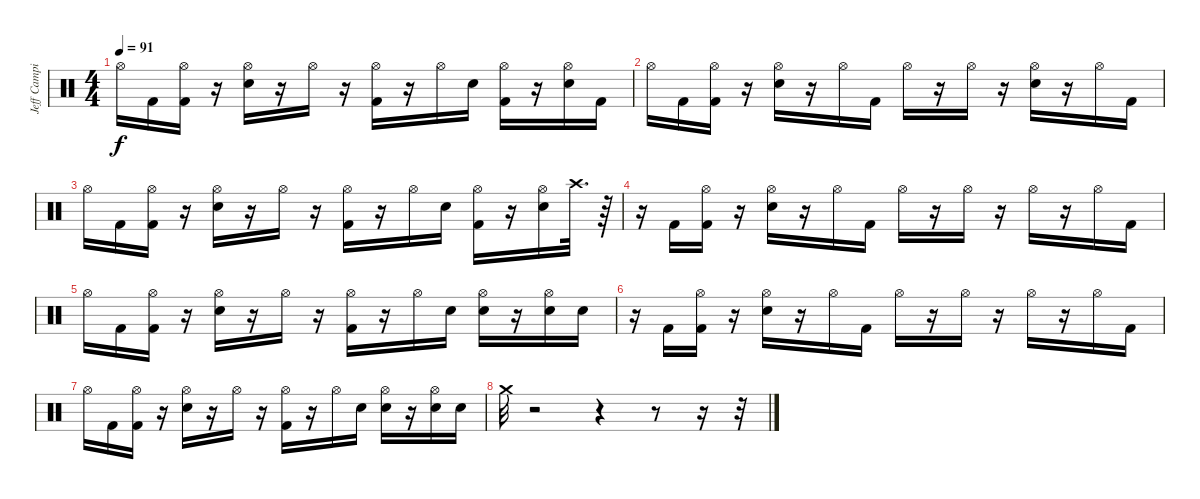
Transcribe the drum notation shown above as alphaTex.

\track ("Jeff Campitelli" "Jeff Campi") {instrument percussion}
\staff {score}
\articulation defaults
\ts (4 4)
\tempo 91
\clef neutral
\ks c "Hi-Hat (open)".16{dy f} "Kick (hit) 2".16
("Hi-Hat (open)" "Kick (hit) 2").16 r.16 ("Hi-Hat (open)" "Snare (hit) 2").16 r.16 "Hi-Hat (open)".16 r.16 ("Kick (hit) 2" "Hi-Hat (open)").16 r.16 "Hi-Hat (open)".16 "Snare (hit) 2".16 ("Kick (hit) 2" "Hi-Hat (open)").16 r.16 ("Snare (hit) 2" "Hi-Hat (open)").16 "Kick (hit) 2".16 |
"Hi-Hat (open)".16 "Kick (hit) 2".16 ("Hi-Hat (open)" "Kick (hit) 2").16 r.16 ("Hi-Hat (open)" "Snare (hit) 2").16 r.16 "Hi-Hat (open)".16 "Kick (hit) 2".16 "Hi-Hat (open)".16 r.16 "Hi-Hat (open)".16 r.16 ("Snare (hit) 2" "Hi-Hat (open)").16 r.16 "Hi-Hat (open)".16 "Kick (hit) 2".16 |
"Hi-Hat (open)".16 "Kick (hit) 2".16 ("Hi-Hat (open)" "Kick (hit) 2").16 r.16 ("Hi-Hat (open)" "Snare (hit) 2").16 r.16 "Hi-Hat (open)".16 r.16 ("Kick (hit) 2" "Hi-Hat (open)").16 r.16 "Hi-Hat (open)".16 "Snare (hit) 2".16 ("Kick (hit) 2" "Hi-Hat (open)").16 r.16 ("Snare (hit) 2" "Hi-Hat (open)").16 "Crash high (hit)".32{d} r.64 |
r.16 "Kick (hit) 2".16 ("Hi-Hat (open)" "Kick (hit) 2").16 r.16 ("Hi-Hat (open)" "Snare (hit) 2").16 r.16 "Hi-Hat (open)".16 "Kick (hit) 2".16 "Hi-Hat (open)".16 r.16 "Hi-Hat (open)".16 r.16 "Hi-Hat (open)".16 r.16 "Hi-Hat (open)".16 "Kick (hit) 2".16 |
"Hi-Hat (open)".16 "Kick (hit) 2".16 ("Hi-Hat (open)" "Kick (hit) 2").16 r.16 ("Hi-Hat (open)" "Snare (hit) 2").16 r.16 "Hi-Hat (open)".16 r.16 ("Kick (hit) 2" "Hi-Hat (open)").16 r.16 "Hi-Hat (open)".16 "Snare (hit) 2".16 ("Snare (hit) 2" "Hi-Hat (open)").16 r.16 ("Snare (hit) 2" "Hi-Hat (open)").16 "Snare (hit) 2".16 |
r.16 "Kick (hit) 2".16 ("Hi-Hat (open)" "Kick (hit) 2").16 r.16 ("Hi-Hat (open)" "Snare (hit) 2").16 r.16 "Hi-Hat (open)".16 "Kick (hit) 2".16 "Hi-Hat (open)".16 r.16 "Hi-Hat (open)".16 r.16 "Hi-Hat (open)".16 r.16 "Hi-Hat (open)".16 "Kick (hit) 2".16 |
"Hi-Hat (open)".16 "Kick (hit) 2".16 ("Hi-Hat (open)" "Kick (hit) 2").16 r.16 ("Hi-Hat (open)" "Snare (hit) 2").16 r.16 "Hi-Hat (open)".16 r.16 ("Kick (hit) 2" "Hi-Hat (open)").16 r.16 "Hi-Hat (open)".16 "Snare (hit) 2".16 ("Snare (hit) 2" "Hi-Hat (open)").16 r.16 ("Snare (hit) 2" "Hi-Hat (open)").16 "Snare (hit) 2".16 |
"Crash medium (hit)".32 r.2 r.4 r.8 r.16 r.32
